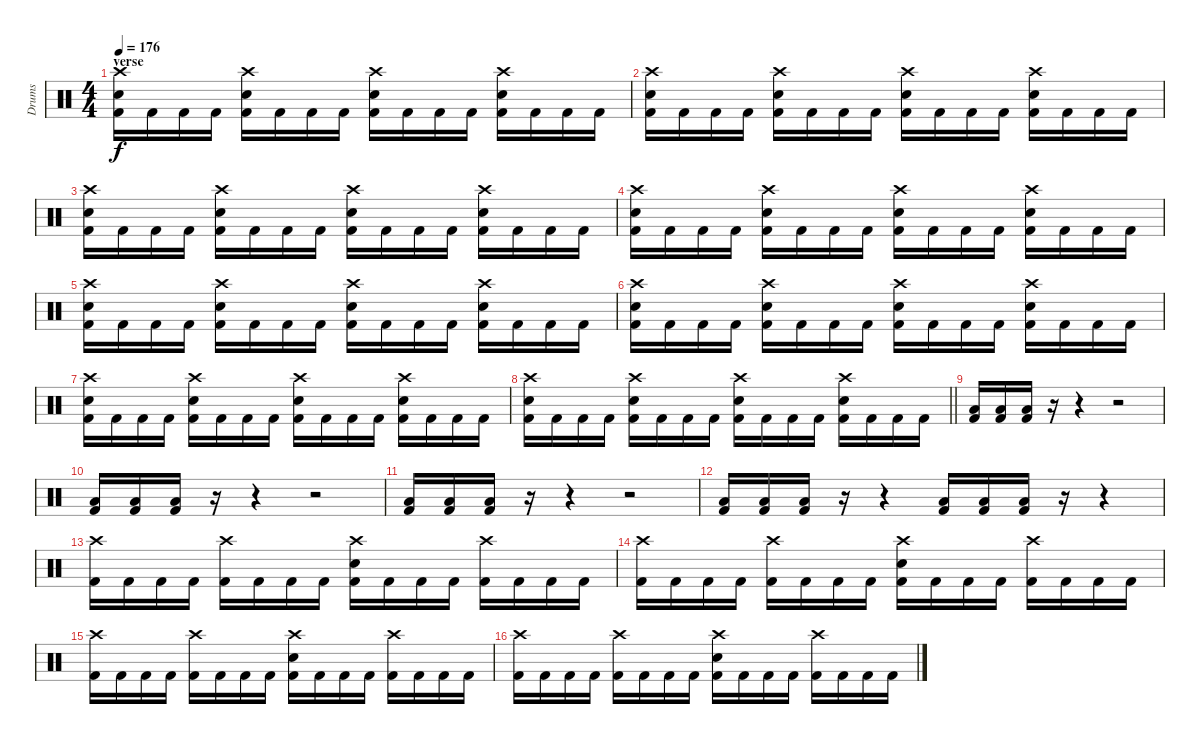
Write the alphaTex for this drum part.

\track ("Drums" "Drums") {instrument percussion}
\staff {score}
\articulation defaults
\ts (4 4)
\section ("" "verse")
\tempo 176
\clef neutral
\ks c
("Crash high (hit)" "Electric Snare (hit)" "Kick (hit) 2").16{dy f} "Kick (hit) 2".16 "Kick (hit) 2".16 "Kick (hit) 2".16 ("Crash high (hit)" "Electric Snare (hit)" "Kick (hit) 2").16 "Kick (hit) 2".16 "Kick (hit) 2".16 "Kick (hit) 2".16 ("Crash high (hit)" "Electric Snare (hit)" "Kick (hit) 2").16 "Kick (hit) 2".16 "Kick (hit) 2".16 "Kick (hit) 2".16 ("Crash high (hit)" "Electric Snare (hit)" "Kick (hit) 2").16 "Kick (hit) 2".16 "Kick (hit) 2".16 "Kick (hit) 2".16 |
("Crash high (hit)" "Electric Snare (hit)" "Kick (hit) 2").16 "Kick (hit) 2".16 "Kick (hit) 2".16 "Kick (hit) 2".16 ("Crash high (hit)" "Electric Snare (hit)" "Kick (hit) 2").16 "Kick (hit) 2".16 "Kick (hit) 2".16 "Kick (hit) 2".16 ("Crash high (hit)" "Electric Snare (hit)" "Kick (hit) 2").16 "Kick (hit) 2".16 "Kick (hit) 2".16 "Kick (hit) 2".16 ("Crash high (hit)" "Electric Snare (hit)" "Kick (hit) 2").16 "Kick (hit) 2".16 "Kick (hit) 2".16 "Kick (hit) 2".16 |
("Crash high (hit)" "Electric Snare (hit)" "Kick (hit) 2").16 "Kick (hit) 2".16 "Kick (hit) 2".16 "Kick (hit) 2".16 ("Crash high (hit)" "Electric Snare (hit)" "Kick (hit) 2").16 "Kick (hit) 2".16 "Kick (hit) 2".16 "Kick (hit) 2".16 ("Crash high (hit)" "Electric Snare (hit)" "Kick (hit) 2").16 "Kick (hit) 2".16 "Kick (hit) 2".16 "Kick (hit) 2".16 ("Crash high (hit)" "Electric Snare (hit)" "Kick (hit) 2").16 "Kick (hit) 2".16 "Kick (hit) 2".16 "Kick (hit) 2".16 |
("Crash high (hit)" "Electric Snare (hit)" "Kick (hit) 2").16 "Kick (hit) 2".16 "Kick (hit) 2".16 "Kick (hit) 2".16 ("Crash high (hit)" "Electric Snare (hit)" "Kick (hit) 2").16 "Kick (hit) 2".16 "Kick (hit) 2".16 "Kick (hit) 2".16 ("Crash high (hit)" "Electric Snare (hit)" "Kick (hit) 2").16 "Kick (hit) 2".16 "Kick (hit) 2".16 "Kick (hit) 2".16 ("Crash high (hit)" "Electric Snare (hit)" "Kick (hit) 2").16 "Kick (hit) 2".16 "Kick (hit) 2".16 "Kick (hit) 2".16 |
("Crash high (hit)" "Electric Snare (hit)" "Kick (hit) 2").16 "Kick (hit) 2".16 "Kick (hit) 2".16 "Kick (hit) 2".16 ("Crash high (hit)" "Electric Snare (hit)" "Kick (hit) 2").16 "Kick (hit) 2".16 "Kick (hit) 2".16 "Kick (hit) 2".16 ("Crash high (hit)" "Electric Snare (hit)" "Kick (hit) 2").16 "Kick (hit) 2".16 "Kick (hit) 2".16 "Kick (hit) 2".16 ("Crash high (hit)" "Electric Snare (hit)" "Kick (hit) 2").16 "Kick (hit) 2".16 "Kick (hit) 2".16 "Kick (hit) 2".16 |
("Crash high (hit)" "Electric Snare (hit)" "Kick (hit) 2").16 "Kick (hit) 2".16 "Kick (hit) 2".16 "Kick (hit) 2".16 ("Crash high (hit)" "Electric Snare (hit)" "Kick (hit) 2").16 "Kick (hit) 2".16 "Kick (hit) 2".16 "Kick (hit) 2".16 ("Crash high (hit)" "Electric Snare (hit)" "Kick (hit) 2").16 "Kick (hit) 2".16 "Kick (hit) 2".16 "Kick (hit) 2".16 ("Crash high (hit)" "Electric Snare (hit)" "Kick (hit) 2").16 "Kick (hit) 2".16 "Kick (hit) 2".16 "Kick (hit) 2".16 |
("Crash high (hit)" "Electric Snare (hit)" "Kick (hit) 2").16 "Kick (hit) 2".16 "Kick (hit) 2".16 "Kick (hit) 2".16 ("Crash high (hit)" "Electric Snare (hit)" "Kick (hit) 2").16 "Kick (hit) 2".16 "Kick (hit) 2".16 "Kick (hit) 2".16 ("Crash high (hit)" "Electric Snare (hit)" "Kick (hit) 2").16 "Kick (hit) 2".16 "Kick (hit) 2".16 "Kick (hit) 2".16 ("Crash high (hit)" "Electric Snare (hit)" "Kick (hit) 2").16 "Kick (hit) 2".16 "Kick (hit) 2".16 "Kick (hit) 2".16 |
\barLineRight lightlight
("Crash high (hit)" "Electric Snare (hit)" "Kick (hit) 2").16 "Kick (hit) 2".16 "Kick (hit) 2".16 "Kick (hit) 2".16 ("Crash high (hit)" "Electric Snare (hit)" "Kick (hit) 2").16 "Kick (hit) 2".16 "Kick (hit) 2".16 "Kick (hit) 2".16 ("Crash high (hit)" "Electric Snare (hit)" "Kick (hit) 2").16 "Kick (hit) 2".16 "Kick (hit) 2".16 "Kick (hit) 2".16 ("Crash high (hit)" "Electric Snare (hit)" "Kick (hit) 2").16 "Kick (hit) 2".16 "Kick (hit) 2".16 "Kick (hit) 2".16 |
("Low Tom (hit)" "Kick (hit) 2").16 ("Low Tom (hit)" "Kick (hit) 2").16 ("Low Tom (hit)" "Kick (hit) 2").16 r.16 r.4 r.2 |
("Low Tom (hit)" "Kick (hit) 2").16 ("Low Tom (hit)" "Kick (hit) 2").16 ("Low Tom (hit)" "Kick (hit) 2").16 r.16 r.4 r.2 |
("Low Tom (hit)" "Kick (hit) 2").16 ("Low Tom (hit)" "Kick (hit) 2").16 ("Low Tom (hit)" "Kick (hit) 2").16 r.16 r.4 r.2 |
("Low Tom (hit)" "Kick (hit) 2").16 ("Low Tom (hit)" "Kick (hit) 2").16 ("Low Tom (hit)" "Kick (hit) 2").16 r.16 r.4 ("Low Tom (hit)" "Kick (hit) 2").16 ("Low Tom (hit)" "Kick (hit) 2").16 ("Low Tom (hit)" "Kick (hit) 2").16 r.16 r.4 |
("Crash high (hit)" "Kick (hit) 2").16 "Kick (hit) 2".16 "Kick (hit) 2".16 "Kick (hit) 2".16 ("Crash high (hit)" "Kick (hit) 2").16 "Kick (hit) 2".16 "Kick (hit) 2".16 "Kick (hit) 2".16 ("Crash high (hit)" "Electric Snare (hit)" "Kick (hit) 2").16 "Kick (hit) 2".16 "Kick (hit) 2".16 "Kick (hit) 2".16 ("Crash high (hit)" "Kick (hit) 2").16 "Kick (hit) 2".16 "Kick (hit) 2".16 "Kick (hit) 2".16 |
("Crash high (hit)" "Kick (hit) 2").16 "Kick (hit) 2".16 "Kick (hit) 2".16 "Kick (hit) 2".16 ("Crash high (hit)" "Kick (hit) 2").16 "Kick (hit) 2".16 "Kick (hit) 2".16 "Kick (hit) 2".16 ("Crash high (hit)" "Electric Snare (hit)" "Kick (hit) 2").16 "Kick (hit) 2".16 "Kick (hit) 2".16 "Kick (hit) 2".16 ("Crash high (hit)" "Kick (hit) 2").16 "Kick (hit) 2".16 "Kick (hit) 2".16 "Kick (hit) 2".16 |
("Crash high (hit)" "Kick (hit) 2").16 "Kick (hit) 2".16 "Kick (hit) 2".16 "Kick (hit) 2".16 ("Crash high (hit)" "Kick (hit) 2").16 "Kick (hit) 2".16 "Kick (hit) 2".16 "Kick (hit) 2".16 ("Crash high (hit)" "Electric Snare (hit)" "Kick (hit) 2").16 "Kick (hit) 2".16 "Kick (hit) 2".16 "Kick (hit) 2".16 ("Crash high (hit)" "Kick (hit) 2").16 "Kick (hit) 2".16 "Kick (hit) 2".16 "Kick (hit) 2".16 |
("Crash high (hit)" "Kick (hit) 2").16 "Kick (hit) 2".16 "Kick (hit) 2".16 "Kick (hit) 2".16 ("Crash high (hit)" "Kick (hit) 2").16 "Kick (hit) 2".16 "Kick (hit) 2".16 "Kick (hit) 2".16 ("Crash high (hit)" "Electric Snare (hit)" "Kick (hit) 2").16 "Kick (hit) 2".16 "Kick (hit) 2".16 "Kick (hit) 2".16 ("Crash high (hit)" "Kick (hit) 2").16 "Kick (hit) 2".16 "Kick (hit) 2".16 "Kick (hit) 2".16
